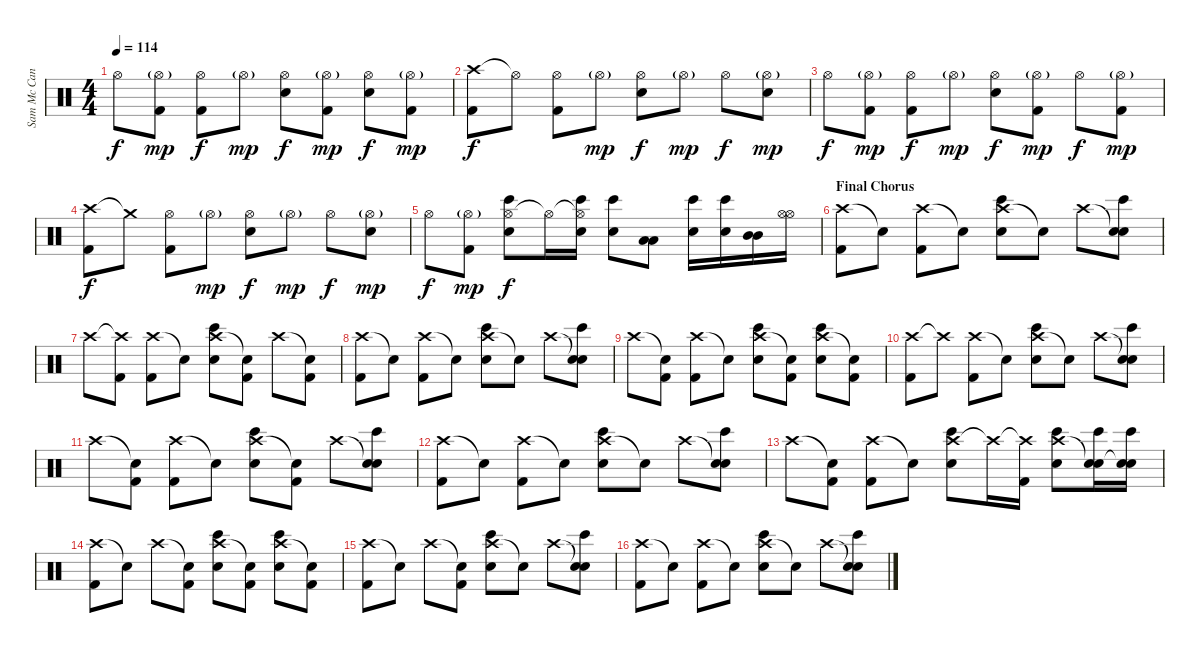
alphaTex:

\track ("Sam Mc Candless (Drums)" "Sam Mc Can") {instrument percussion}
\staff {score}
\articulation defaults
\ts (4 4)
\tempo 114
\clef neutral
\ks c "Hi-Hat (open)".8{dy f}
("Hi-Hat (open)"{g} "Kick (hit) 2").8{dy mp} ("Hi-Hat (open)" "Kick (hit) 2").8{dy f} "Hi-Hat (open)"{g}.8{dy mp} ("Hi-Hat (open)" "Electric Snare (hit)").8{dy f} ("Hi-Hat (open)"{g} "Kick (hit) 2").8{dy mp} ("Hi-Hat (open)" "Electric Snare (hit)").8{dy f} ("Hi-Hat (open)"{g} "Kick (hit) 2").8{dy mp} |
("Crash high (hit)" "Kick (hit) 2").8{dy f} "Hi-Hat (open)"{t}.8 ("Hi-Hat (open)" "Kick (hit) 2").8 "Hi-Hat (open)"{g}.8{dy mp} ("Hi-Hat (open)" "Electric Snare (hit)").8{dy f} "Hi-Hat (open)"{g}.8{dy mp} "Hi-Hat (open)".8{dy f} ("Hi-Hat (open)"{g} "Electric Snare (hit)").8{dy mp} |
"Hi-Hat (open)".8{dy f} ("Hi-Hat (open)"{g} "Kick (hit) 2").8{dy mp} ("Hi-Hat (open)" "Kick (hit) 2").8{dy f} "Hi-Hat (open)"{g}.8{dy mp} ("Hi-Hat (open)" "Electric Snare (hit)").8{dy f} ("Hi-Hat (open)"{g} "Kick (hit) 2").8{dy mp} "Hi-Hat (open)".8{dy f} ("Hi-Hat (open)"{g} "Kick (hit) 2").8{dy mp} |
("Crash high (hit)" "Kick (hit) 2").8{dy f} "Crash medium (hit)"{t}.8 ("Hi-Hat (open)" "Kick (hit) 2").8 "Hi-Hat (open)"{g}.8{dy mp} ("Hi-Hat (open)" "Electric Snare (hit)").8{dy f} "Hi-Hat (open)"{g}.8{dy mp} "Hi-Hat (open)".8{dy f} ("Hi-Hat (open)"{g} "Electric Snare (hit)").8{dy mp} |
"Hi-Hat (open)".8{dy f} ("Hi-Hat (open)"{g} "Kick (hit) 2").8{dy mp} ("Hi-Hat (open)" "Electric Snare (hit)" "Bongo High (hit)").8{dy f} "Hi-Hat (open)"{t}.16 ("Hi-Hat (open)"{t} "Electric Snare (hit)" "Bongo High (hit)").16 ("Electric Snare (hit)" "Bongo High (hit)").8 ("Low Tom (hit)" "Low Tom (hit)").8 ("Electric Snare (hit)" "Bongo High (hit)").16 ("Electric Snare (hit)" "Bongo High (hit)").16 ("Mid Tom (hit)" "Mid Tom (hit)").16 ("Hi-Hat (open)" "Hi-Hat (open)").16 |
\section ("" "Final Chorus")
("Crash high (hit)" "Kick (hit) 2").8 "Snare (hit)"{t}.8 ("Crash high (hit)" "Kick (hit) 2").8 "Snare (hit)"{t}.8 ("Crash high (hit)" "Electric Snare (hit)" "Bongo High (hit)").8 "Snare (hit)"{t}.8 "Crash high (hit)".8 ("Snare (hit)"{t} "Electric Snare (hit)" "Bongo High (hit)").8 |
"Crash high (hit)".8 ("Crash high (hit)"{t} "Kick (hit) 2").8 ("Crash high (hit)" "Kick (hit) 2").8 "Snare (hit)"{t}.8 ("Crash high (hit)" "Electric Snare (hit)" "Bongo High (hit)").8 ("Snare (hit)"{t} "Kick (hit) 2").8 "Crash high (hit)".8 ("Snare (hit)"{t} "Kick (hit) 2").8 |
("Crash high (hit)" "Kick (hit) 2").8 "Snare (hit)"{t}.8 ("Crash high (hit)" "Kick (hit) 2").8 "Snare (hit)"{t}.8 ("Crash high (hit)" "Electric Snare (hit)" "Bongo High (hit)").8 "Snare (hit)"{t}.8 "Crash high (hit)".8 ("Snare (hit)"{t} "Electric Snare (hit)" "Bongo High (hit)").8 |
"Crash high (hit)".8 ("Snare (hit)"{t} "Kick (hit) 2").8 ("Crash high (hit)" "Kick (hit) 2").8 "Snare (hit)"{t}.8 ("Crash high (hit)" "Electric Snare (hit)" "Bongo High (hit)").8 ("Snare (hit)"{t} "Kick (hit) 2").8 ("Crash high (hit)" "Electric Snare (hit)" "Bongo High (hit)").8 ("Snare (hit)"{t} "Kick (hit) 2").8 |
("Crash high (hit)" "Kick (hit) 2").8 "Crash high (hit)"{t}.8 ("Crash high (hit)" "Kick (hit) 2").8 "Snare (hit)"{t}.8 ("Crash high (hit)" "Electric Snare (hit)" "Bongo High (hit)").8 "Snare (hit)"{t}.8 "Crash high (hit)".8 ("Snare (hit)"{t} "Electric Snare (hit)" "Bongo High (hit)").8 |
"Crash high (hit)".8 ("Snare (hit)"{t} "Kick (hit) 2").8 ("Crash high (hit)" "Kick (hit) 2").8 "Snare (hit)"{t}.8 ("Crash high (hit)" "Electric Snare (hit)" "Bongo High (hit)").8 ("Snare (hit)"{t} "Kick (hit) 2").8 "Crash high (hit)".8 ("Snare (hit)"{t} "Electric Snare (hit)" "Bongo High (hit)").8 |
("Crash high (hit)" "Kick (hit) 2").8 "Snare (hit)"{t}.8 ("Crash high (hit)" "Kick (hit) 2").8 "Snare (hit)"{t}.8 ("Crash high (hit)" "Electric Snare (hit)" "Bongo High (hit)").8 "Snare (hit)"{t}.8 "Crash high (hit)".8 ("Snare (hit)"{t} "Electric Snare (hit)" "Bongo High (hit)").8 |
"Crash high (hit)".8 ("Snare (hit)"{t} "Kick (hit) 2").8 ("Crash high (hit)" "Kick (hit) 2").8 "Snare (hit)"{t}.8 ("Crash high (hit)" "Electric Snare (hit)" "Bongo High (hit)").8 "Crash high (hit)"{t}.16 ("Crash high (hit)"{t} "Kick (hit) 2").16 ("Crash high (hit)" "Electric Snare (hit)" "Bongo High (hit)").8 ("Snare (hit)"{t} "Electric Snare (hit)" "Bongo High (hit)").16 ("Snare (hit)"{t} "Electric Snare (hit)" "Bongo High (hit)").16 |
("Crash high (hit)" "Kick (hit) 2").8 "Snare (hit)"{t}.8 "Crash high (hit)".8 ("Snare (hit)"{t} "Kick (hit) 2").8 ("Crash high (hit)" "Electric Snare (hit)" "Bongo High (hit)").8 ("Snare (hit)"{t} "Kick (hit) 2").8 ("Crash high (hit)" "Electric Snare (hit)" "Bongo High (hit)").8 ("Snare (hit)"{t} "Kick (hit) 2").8 |
("Crash high (hit)" "Kick (hit) 2").8 "Snare (hit)"{t}.8 "Crash high (hit)".8 ("Snare (hit)"{t} "Kick (hit) 2").8 ("Crash high (hit)" "Electric Snare (hit)" "Bongo High (hit)").8 "Snare (hit)"{t}.8 "Crash high (hit)".8 ("Snare (hit)"{t} "Electric Snare (hit)" "Bongo High (hit)").8 |
("Crash high (hit)" "Kick (hit) 2").8 "Snare (hit)"{t}.8 ("Crash high (hit)" "Kick (hit) 2").8 "Snare (hit)"{t}.8 ("Crash high (hit)" "Electric Snare (hit)" "Bongo High (hit)").8 "Snare (hit)"{t}.8 "Crash high (hit)".8 ("Snare (hit)"{t} "Electric Snare (hit)" "Bongo High (hit)").8
